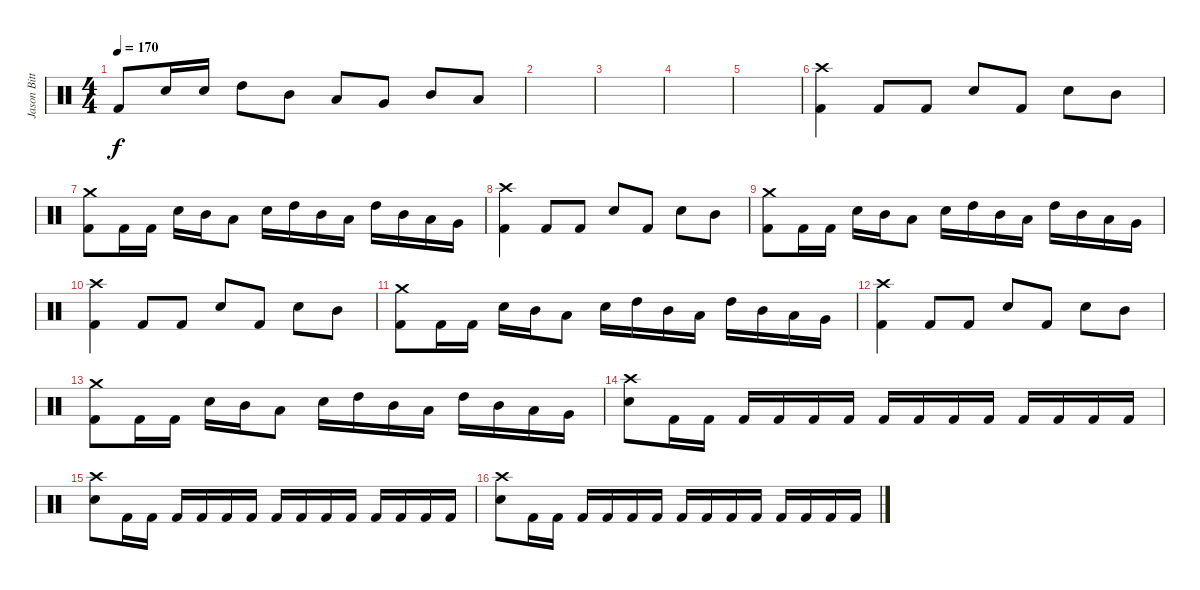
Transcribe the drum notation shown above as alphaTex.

\track ("Jason Bittner" "Jason Bitt") {instrument percussion}
\staff {score}
\articulation defaults
\ts (4 4)
\tempo 170
\clef neutral
\ks c "Kick (hit) 2".8{dy f} "Electric Snare (hit)".16 "Electric Snare (hit)".16 "High Tom (hit)".8 "Mid Tom (hit)".8 "Low Tom (hit)".8 "Very Low Tom (hit)".8 "Mid Tom (hit)".8 "Low Tom (hit)".8
|
|
|
|
|
("Crash high (hit)" "Kick (hit) 2").4 "Kick (hit) 2".8 "Kick (hit) 2".8 "Electric Snare (hit)".8 "Kick (hit) 2".8 "Electric Snare (hit)".8 "Mid Tom (hit)".8 |
("Crash medium (hit)" "Kick (hit) 2").8 "Kick (hit) 2".16 "Kick (hit) 2".16 "Electric Snare (hit)".16 "Mid Tom (hit)".16 "Low Tom (hit)".8 "Electric Snare (hit)".16 "High Tom (hit)".16 "Mid Tom (hit)".16 "Low Tom (hit)".16 "High Tom (hit)".16 "Mid Tom (hit)".16 "Low Tom (hit)".16 "Very Low Tom (hit)".16 |
("Crash high (hit)" "Kick (hit) 2").4 "Kick (hit) 2".8 "Kick (hit) 2".8 "Electric Snare (hit)".8 "Kick (hit) 2".8 "Electric Snare (hit)".8 "Mid Tom (hit)".8 |
("Crash medium (hit)" "Kick (hit) 2").8 "Kick (hit) 2".16 "Kick (hit) 2".16 "Electric Snare (hit)".16 "Mid Tom (hit)".16 "Low Tom (hit)".8 "Electric Snare (hit)".16 "High Tom (hit)".16 "Mid Tom (hit)".16 "Low Tom (hit)".16 "High Tom (hit)".16 "Mid Tom (hit)".16 "Low Tom (hit)".16 "Very Low Tom (hit)".16 |
("Crash high (hit)" "Kick (hit) 2").4 "Kick (hit) 2".8 "Kick (hit) 2".8 "Electric Snare (hit)".8 "Kick (hit) 2".8 "Electric Snare (hit)".8 "Mid Tom (hit)".8 |
("Crash medium (hit)" "Kick (hit) 2").8 "Kick (hit) 2".16 "Kick (hit) 2".16 "Electric Snare (hit)".16 "Mid Tom (hit)".16 "Low Tom (hit)".8 "Electric Snare (hit)".16 "High Tom (hit)".16 "Mid Tom (hit)".16 "Low Tom (hit)".16 "High Tom (hit)".16 "Mid Tom (hit)".16 "Low Tom (hit)".16 "Very Low Tom (hit)".16 |
("Crash high (hit)" "Kick (hit) 2").4 "Kick (hit) 2".8 "Kick (hit) 2".8 "Electric Snare (hit)".8 "Kick (hit) 2".8 "Electric Snare (hit)".8 "Mid Tom (hit)".8 |
("Crash medium (hit)" "Kick (hit) 2").8 "Kick (hit) 2".16 "Kick (hit) 2".16 "Electric Snare (hit)".16 "Mid Tom (hit)".16 "Low Tom (hit)".8 "Electric Snare (hit)".16 "High Tom (hit)".16 "Mid Tom (hit)".16 "Low Tom (hit)".16 "High Tom (hit)".16 "Mid Tom (hit)".16 "Low Tom (hit)".16 "Very Low Tom (hit)".16 |
("Crash high (hit)" "Electric Snare (hit)").8 "Kick (hit) 2".16 "Kick (hit) 2".16 "Kick (hit) 2".16 "Kick (hit) 2".16 "Kick (hit) 2".16 "Kick (hit) 2".16 "Kick (hit) 2".16 "Kick (hit) 2".16 "Kick (hit) 2".16 "Kick (hit) 2".16 "Kick (hit) 2".16 "Kick (hit) 2".16 "Kick (hit) 2".16 "Kick (hit) 2".16 |
("Crash high (hit)" "Electric Snare (hit)").8 "Kick (hit) 2".16 "Kick (hit) 2".16 "Kick (hit) 2".16 "Kick (hit) 2".16 "Kick (hit) 2".16 "Kick (hit) 2".16 "Kick (hit) 2".16 "Kick (hit) 2".16 "Kick (hit) 2".16 "Kick (hit) 2".16 "Kick (hit) 2".16 "Kick (hit) 2".16 "Kick (hit) 2".16 "Kick (hit) 2".16 |
("Crash high (hit)" "Electric Snare (hit)").8 "Kick (hit) 2".16 "Kick (hit) 2".16 "Kick (hit) 2".16 "Kick (hit) 2".16 "Kick (hit) 2".16 "Kick (hit) 2".16 "Kick (hit) 2".16 "Kick (hit) 2".16 "Kick (hit) 2".16 "Kick (hit) 2".16 "Kick (hit) 2".16 "Kick (hit) 2".16 "Kick (hit) 2".16 "Kick (hit) 2".16
